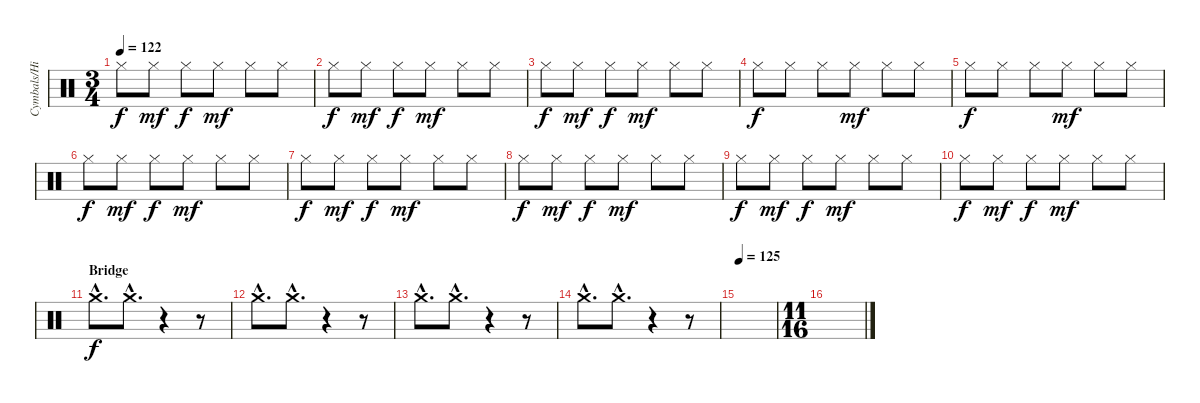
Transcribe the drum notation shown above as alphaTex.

\track ("Cymbals/Hi-hat" "Cymbals/Hi") {instrument percussion}
\staff {score}
\articulation defaults
\ts (3 4)
\tempo 122
\clef neutral
\ks c "Hi-Hat (closed)".8{dy f} "Hi-Hat (closed)".8{dy mf} "Hi-Hat (closed)".8{dy f} "Hi-Hat (closed)".8{dy mf} "Hi-Hat (closed)".8 "Hi-Hat (closed)".8
|
"Hi-Hat (closed)".8{dy f} "Hi-Hat (closed)".8{dy mf} "Hi-Hat (closed)".8{dy f} "Hi-Hat (closed)".8{dy mf} "Hi-Hat (closed)".8 "Hi-Hat (closed)".8 |
"Hi-Hat (closed)".8{dy f} "Hi-Hat (closed)".8{dy mf} "Hi-Hat (closed)".8{dy f} "Hi-Hat (closed)".8{dy mf} "Hi-Hat (closed)".8 "Hi-Hat (closed)".8 |
"Hi-Hat (closed)".8{dy f} "Hi-Hat (closed)".8 "Hi-Hat (closed)".8 "Hi-Hat (closed)".8{dy mf} "Hi-Hat (closed)".8 "Hi-Hat (closed)".8 |
"Hi-Hat (closed)".8{dy f} "Hi-Hat (closed)".8 "Hi-Hat (closed)".8 "Hi-Hat (closed)".8{dy mf} "Hi-Hat (closed)".8 "Hi-Hat (closed)".8 |
"Hi-Hat (closed)".8{dy f} "Hi-Hat (closed)".8{dy mf} "Hi-Hat (closed)".8{dy f} "Hi-Hat (closed)".8{dy mf} "Hi-Hat (closed)".8 "Hi-Hat (closed)".8 |
"Hi-Hat (closed)".8{dy f} "Hi-Hat (closed)".8{dy mf} "Hi-Hat (closed)".8{dy f} "Hi-Hat (closed)".8{dy mf} "Hi-Hat (closed)".8 "Hi-Hat (closed)".8 |
"Hi-Hat (closed)".8{dy f} "Hi-Hat (closed)".8{dy mf} "Hi-Hat (closed)".8{dy f} "Hi-Hat (closed)".8{dy mf} "Hi-Hat (closed)".8 "Hi-Hat (closed)".8 |
"Hi-Hat (closed)".8{dy f} "Hi-Hat (closed)".8{dy mf} "Hi-Hat (closed)".8{dy f} "Hi-Hat (closed)".8{dy mf} "Hi-Hat (closed)".8 "Hi-Hat (closed)".8 |
"Hi-Hat (closed)".8{dy f} "Hi-Hat (closed)".8{dy mf} "Hi-Hat (closed)".8{dy f} "Hi-Hat (closed)".8{dy mf} "Hi-Hat (closed)".8 "Hi-Hat (closed)".8 |
\section ("" "Bridge")
"Crash medium (hit)"{hac}.8{d dy f} "Crash medium (hit)"{hac}.8{d} r.4 r.8 |
"Crash medium (hit)"{hac}.8{d} "Crash medium (hit)"{hac}.8{d} r.4 r.8 |
"Crash medium (hit)"{hac}.8{d} "Crash medium (hit)"{hac}.8{d} r.4 r.8 |
"Crash medium (hit)"{hac}.8{d} "Crash medium (hit)"{hac}.8{d} r.4 r.8 |
\tempo 125
|
\ts (11 16)
